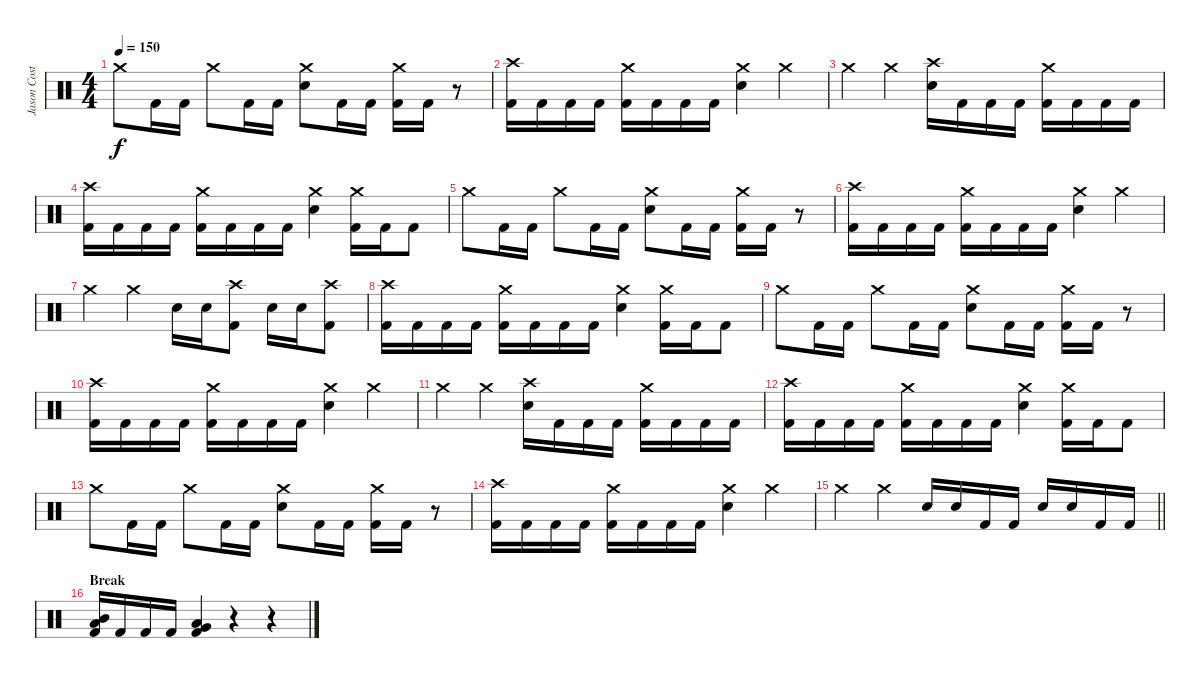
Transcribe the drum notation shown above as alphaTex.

\track ("Jason Costa" "Jason Cost") {instrument percussion}
\staff {score}
\articulation defaults
\ts (4 4)
\tempo 150
\clef neutral
\ks c "Crash medium (hit)".8{dy f} "Kick (hit) 2".16 "Kick (hit) 2".16 "Crash medium (hit)".8 "Kick (hit) 2".16 "Kick (hit) 2".16
("Crash medium (hit)" "Electric Snare (hit)").8 "Kick (hit) 2".16 "Kick (hit) 2".16 ("Crash medium (hit)" "Kick (hit) 2").16 "Kick (hit) 2".16 r.8 |
("Crash high (hit)" "Kick (hit) 2").16 "Kick (hit) 2".16 "Kick (hit) 2".16 "Kick (hit) 2".16 ("Crash medium (hit)" "Kick (hit) 2").16 "Kick (hit) 2".16 "Kick (hit) 2".16 "Kick (hit) 2".16 ("Crash medium (hit)" "Electric Snare (hit)").4 "Crash medium (hit)".4 |
"Crash medium (hit)".4 "Crash medium (hit)".4 ("Crash high (hit)" "Electric Snare (hit)").16 "Kick (hit) 2".16 "Kick (hit) 2".16 "Kick (hit) 2".16 ("Crash medium (hit)" "Kick (hit) 2").16 "Kick (hit) 2".16 "Kick (hit) 2".16 "Kick (hit) 2".16 |
("Crash high (hit)" "Kick (hit) 2").16 "Kick (hit) 2".16 "Kick (hit) 2".16 "Kick (hit) 2".16 ("Crash medium (hit)" "Kick (hit) 2").16 "Kick (hit) 2".16 "Kick (hit) 2".16 "Kick (hit) 2".16 ("Crash medium (hit)" "Electric Snare (hit)").4 ("Crash medium (hit)" "Kick (hit) 2").16 "Kick (hit) 2".16 "Kick (hit) 2".8 |
"Crash medium (hit)".8 "Kick (hit) 2".16 "Kick (hit) 2".16 "Crash medium (hit)".8 "Kick (hit) 2".16 "Kick (hit) 2".16 ("Crash medium (hit)" "Electric Snare (hit)").8 "Kick (hit) 2".16 "Kick (hit) 2".16 ("Crash medium (hit)" "Kick (hit) 2").16 "Kick (hit) 2".16 r.8 |
("Crash high (hit)" "Kick (hit) 2").16 "Kick (hit) 2".16 "Kick (hit) 2".16 "Kick (hit) 2".16 ("Crash medium (hit)" "Kick (hit) 2").16 "Kick (hit) 2".16 "Kick (hit) 2".16 "Kick (hit) 2".16 ("Crash medium (hit)" "Electric Snare (hit)").4 "Crash medium (hit)".4 |
"Crash medium (hit)".4 "Crash medium (hit)".4 "Electric Snare (hit)".16 "Electric Snare (hit)".16 ("Crash high (hit)" "Kick (hit) 2").8 "Electric Snare (hit)".16 "Electric Snare (hit)".16 ("Crash high (hit)" "Kick (hit) 2").8 |
("Crash high (hit)" "Kick (hit) 2").16 "Kick (hit) 2".16 "Kick (hit) 2".16 "Kick (hit) 2".16 ("Crash medium (hit)" "Kick (hit) 2").16 "Kick (hit) 2".16 "Kick (hit) 2".16 "Kick (hit) 2".16 ("Crash medium (hit)" "Electric Snare (hit)").4 ("Crash medium (hit)" "Kick (hit) 2").16 "Kick (hit) 2".16 "Kick (hit) 2".8 |
"Crash medium (hit)".8 "Kick (hit) 2".16 "Kick (hit) 2".16 "Crash medium (hit)".8 "Kick (hit) 2".16 "Kick (hit) 2".16 ("Crash medium (hit)" "Electric Snare (hit)").8 "Kick (hit) 2".16 "Kick (hit) 2".16 ("Crash medium (hit)" "Kick (hit) 2").16 "Kick (hit) 2".16 r.8 |
("Crash high (hit)" "Kick (hit) 2").16 "Kick (hit) 2".16 "Kick (hit) 2".16 "Kick (hit) 2".16 ("Crash medium (hit)" "Kick (hit) 2").16 "Kick (hit) 2".16 "Kick (hit) 2".16 "Kick (hit) 2".16 ("Crash medium (hit)" "Electric Snare (hit)").4 "Crash medium (hit)".4 |
"Crash medium (hit)".4 "Crash medium (hit)".4 ("Crash high (hit)" "Electric Snare (hit)").16 "Kick (hit) 2".16 "Kick (hit) 2".16 "Kick (hit) 2".16 ("Crash medium (hit)" "Kick (hit) 2").16 "Kick (hit) 2".16 "Kick (hit) 2".16 "Kick (hit) 2".16 |
("Crash high (hit)" "Kick (hit) 2").16 "Kick (hit) 2".16 "Kick (hit) 2".16 "Kick (hit) 2".16 ("Crash medium (hit)" "Kick (hit) 2").16 "Kick (hit) 2".16 "Kick (hit) 2".16 "Kick (hit) 2".16 ("Crash medium (hit)" "Electric Snare (hit)").4 ("Crash medium (hit)" "Kick (hit) 2").16 "Kick (hit) 2".16 "Kick (hit) 2".8 |
"Crash medium (hit)".8 "Kick (hit) 2".16 "Kick (hit) 2".16 "Crash medium (hit)".8 "Kick (hit) 2".16 "Kick (hit) 2".16 ("Crash medium (hit)" "Electric Snare (hit)").8 "Kick (hit) 2".16 "Kick (hit) 2".16 ("Crash medium (hit)" "Kick (hit) 2").16 "Kick (hit) 2".16 r.8 |
("Crash high (hit)" "Kick (hit) 2").16 "Kick (hit) 2".16 "Kick (hit) 2".16 "Kick (hit) 2".16 ("Crash medium (hit)" "Kick (hit) 2").16 "Kick (hit) 2".16 "Kick (hit) 2".16 "Kick (hit) 2".16 ("Crash medium (hit)" "Electric Snare (hit)").4 "Crash medium (hit)".4 |
\barLineRight lightlight "Crash medium (hit)".4 "Crash medium (hit)".4 "Electric Snare (hit)".16 "Electric Snare (hit)".16 "Kick (hit) 2".16 "Kick (hit) 2".16 "Electric Snare (hit)".16 "Electric Snare (hit)".16 "Kick (hit) 2".16 "Kick (hit) 2".16
|
\section ("" "Break")
("Mid Tom (hit)" "Low Tom (hit)" "Kick (hit) 2").16 "Kick (hit) 2".16 "Kick (hit) 2".16 "Kick (hit) 2".16 ("Low Tom (hit)" "Very Low Tom (hit)" "Kick (hit) 2").4 r.4 r.4
